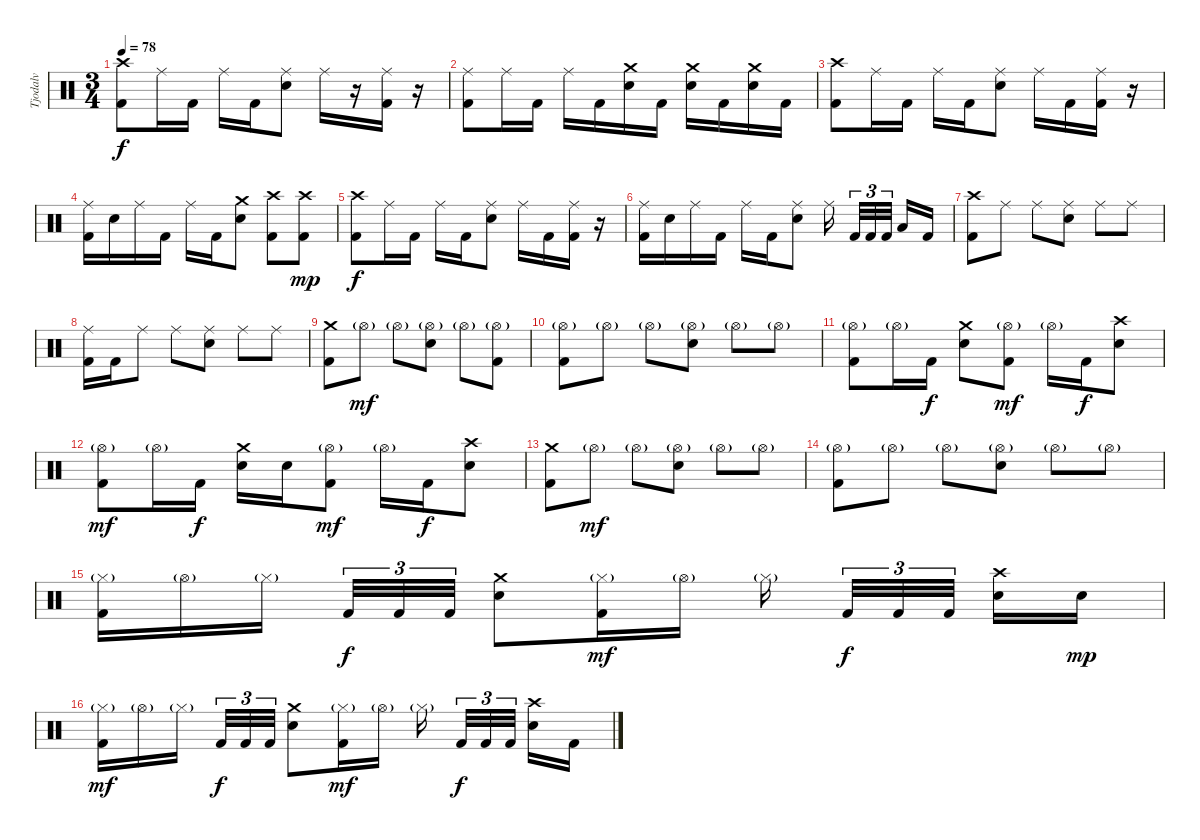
\track ("Tjodalv" "Tjodalv") {instrument percussion}
\staff {score}
\articulation defaults
\ts (3 4)
\tempo 78
\clef neutral
\ks c
("Crash high (hit)" "Kick (hit) 2").8{dy f} "Ride (middle)".16 "Kick (hit) 2".16 "Ride (middle)".16 "Kick (hit) 2".16 ("Ride (middle)" "Electric Snare (hit)").8 "Ride (middle)".16 r.16 ("Ride (middle)" "Kick (hit) 2").16 r.16 |
("Ride (middle)" "Kick (hit) 2").8 "Ride (middle)".16 "Kick (hit) 2".16 "Ride (middle)".16 "Kick (hit) 2".16 ("Crash medium (hit)" "Electric Snare (hit)").16 "Kick (hit) 2".16 ("Crash medium (hit)" "Electric Snare (hit)").16 "Kick (hit) 2".16 ("Crash medium (hit)" "Electric Snare (hit)").16 "Kick (hit) 2".16 |
("Crash high (hit)" "Kick (hit) 2").8 "Ride (middle)".16 "Kick (hit) 2".16 "Ride (middle)".16 "Kick (hit) 2".16 ("Ride (middle)" "Electric Snare (hit)").8 "Ride (middle)".16 "Kick (hit) 2".16 ("Ride (middle)" "Kick (hit) 2").16 r.16 |
("Ride (middle)" "Kick (hit) 2").16 "Electric Snare (hit)".16 "Ride (middle)".16 "Kick (hit) 2".16 "Ride (middle)".16 "Kick (hit) 2".16 ("Crash medium (hit)" "Electric Snare (hit)").8 ("Crash high (hit)" "Kick (hit) 2").8 ("Crash high (hit)" "Kick (hit) 2").8{dy mp} |
("Crash high (hit)" "Kick (hit) 2").8{dy f} "Ride (middle)".16 "Kick (hit) 2".16 "Ride (middle)".16 "Kick (hit) 2".16 ("Ride (middle)" "Electric Snare (hit)").8 "Ride (middle)".16 "Kick (hit) 2".16 ("Ride (middle)" "Kick (hit) 2").16 r.16 |
("Ride (middle)" "Kick (hit) 2").16 "Electric Snare (hit)".16 "Ride (middle)".16 "Kick (hit) 2".16 "Ride (middle)".16 "Kick (hit) 2".16 ("Ride (middle)" "Electric Snare (hit)").8 "Ride (middle)".16{beam splitsecondary} "Kick (hit) 2".32{tu (3 2)} "Kick (hit) 2".32{tu (3 2)} "Kick (hit) 2".32{tu (3 2) beam splitsecondary} "Low Tom (hit)".16 "Kick (hit) 2".16 |
("Crash high (hit)" "Kick (hit) 2").8 "Ride (middle)".8 "Ride (middle)".8 ("Ride (middle)" "Electric Snare (hit)").8 "Ride (middle)".8 "Ride (middle)".8 |
("Ride (middle)" "Kick (hit) 2").16 "Kick (hit) 2".16 "Ride (middle)".8 "Ride (middle)".8 ("Ride (middle)" "Electric Snare (hit)").8 "Ride (middle)".8 "Ride (middle)".8 |
\section ("" "")
("Crash medium (hit)" "Kick (hit) 2").8 "Hi-Hat (open)"{g}.8{dy mf} "Hi-Hat (open)"{g}.8 ("Hi-Hat (open)"{g} "Electric Snare (hit)").8 "Hi-Hat (open)"{g}.8 ("Hi-Hat (open)"{g} "Kick (hit) 2").8 |
("Hi-Hat (open)"{g} "Kick (hit) 2").8 "Hi-Hat (open)"{g}.8 "Hi-Hat (open)"{g}.8 ("Hi-Hat (open)"{g} "Electric Snare (hit)").8 "Hi-Hat (open)"{g}.8 "Hi-Hat (open)"{g}.8 |
("Hi-Hat (open)"{g} "Kick (hit) 2").8 "Hi-Hat (open)"{g}.16 "Kick (hit) 2".16{dy f} ("Crash medium (hit)" "Electric Snare (hit)").8 ("Hi-Hat (open)"{g} "Kick (hit) 2").8{dy mf} "Hi-Hat (open)"{g}.16 "Kick (hit) 2".16{dy f} ("Crash high (hit)" "Electric Snare (hit)").8 |
("Hi-Hat (open)"{g} "Kick (hit) 2").8{dy mf} "Hi-Hat (open)"{g}.16 "Kick (hit) 2".16{dy f} ("Crash medium (hit)" "Electric Snare (hit)").16 "Electric Snare (hit)".16 ("Hi-Hat (open)"{g} "Kick (hit) 2").8{dy mf} "Hi-Hat (open)"{g}.16 "Kick (hit) 2".16{dy f} ("Crash high (hit)" "Electric Snare (hit)").8 |
("Crash medium (hit)" "Kick (hit) 2").8 "Hi-Hat (open)"{g}.8{dy mf} "Hi-Hat (open)"{g}.8 ("Hi-Hat (open)"{g} "Electric Snare (hit)").8 "Hi-Hat (open)"{g}.8 "Hi-Hat (open)"{g}.8 |
("Hi-Hat (open)"{g} "Kick (hit) 2").8 "Hi-Hat (open)"{g}.8 "Hi-Hat (open)"{g}.8 ("Hi-Hat (open)"{g} "Electric Snare (hit)").8 "Hi-Hat (open)"{g}.8 "Hi-Hat (open)"{g}.8 |
("Hi-Hat (closed)"{g} "Kick (hit) 2").16 "Hi-Hat (open)"{g}.16 "Hi-Hat (closed)"{g}.16{beam splitsecondary} "Kick (hit) 2".32{tu (3 2) dy f} "Kick (hit) 2".32{tu (3 2)} "Kick (hit) 2".32{tu (3 2)} ("Crash medium (hit)" "Electric Snare (hit)").8 ("Hi-Hat (closed)"{g} "Kick (hit) 2").16{dy mf} "Hi-Hat (open)"{g}.16 "Hi-Hat (closed)"{g}.16{beam splitsecondary} "Kick (hit) 2".32{tu (3 2) dy f} "Kick (hit) 2".32{tu (3 2)} "Kick (hit) 2".32{tu (3 2) beam splitsecondary} ("Crash high (hit)" "Electric Snare (hit)").16 "Electric Snare (hit)".16{dy mp} |
("Hi-Hat (closed)"{g} "Kick (hit) 2").16{dy mf} "Hi-Hat (open)"{g}.16 "Hi-Hat (closed)"{g}.16{beam splitsecondary} "Kick (hit) 2".32{tu (3 2) dy f} "Kick (hit) 2".32{tu (3 2)} "Kick (hit) 2".32{tu (3 2)} ("Crash medium (hit)" "Electric Snare (hit)").8 ("Hi-Hat (closed)"{g} "Kick (hit) 2").16{dy mf} "Hi-Hat (open)"{g}.16 "Hi-Hat (closed)"{g}.16{beam splitsecondary} "Kick (hit) 2".32{tu (3 2) dy f} "Kick (hit) 2".32{tu (3 2)} "Kick (hit) 2".32{tu (3 2) beam splitsecondary} ("Crash high (hit)" "Electric Snare (hit)").16 "Kick (hit) 2".16
